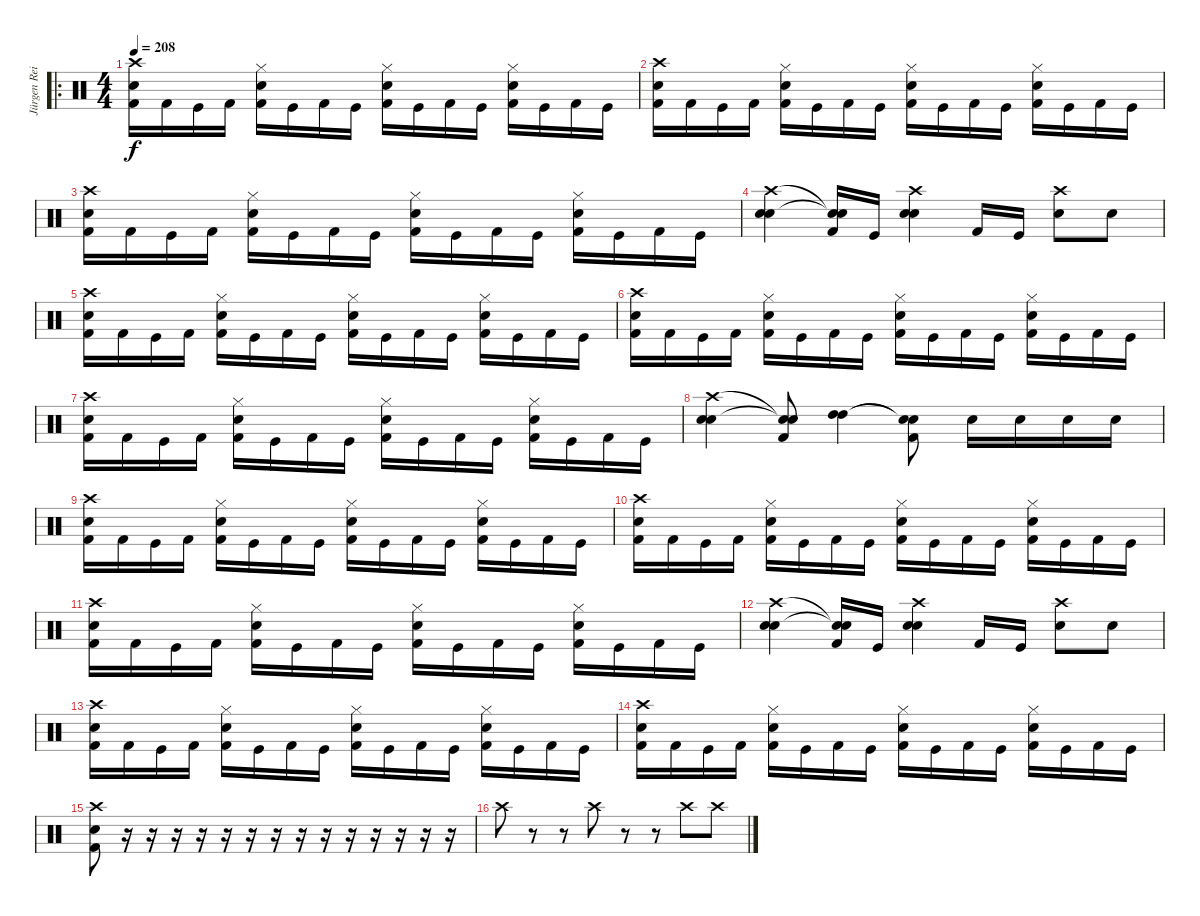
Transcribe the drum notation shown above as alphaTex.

\track ("Jürgen Reil" "Jürgen Rei") {instrument percussion}
\staff {score}
\articulation defaults
\ro
\ts (4 4)
\tempo 208
\clef neutral
\ks c
("Crash high (hit)" "Electric Snare (hit)" "Kick (hit) 2").16{dy f} "Kick (hit) 2".16 "Kick (hit)".16 "Kick (hit) 2".16 ("Hi-Hat (closed)" "Electric Snare (hit)" "Kick (hit) 2").16 "Kick (hit)".16 "Kick (hit) 2".16 "Kick (hit)".16 ("Hi-Hat (closed)" "Electric Snare (hit)" "Kick (hit) 2").16 "Kick (hit)".16 "Kick (hit) 2".16 "Kick (hit)".16 ("Hi-Hat (closed)" "Electric Snare (hit)" "Kick (hit) 2").16 "Kick (hit)".16 "Kick (hit) 2".16 "Kick (hit)".16 |
("Crash high (hit)" "Electric Snare (hit)" "Kick (hit) 2").16 "Kick (hit) 2".16 "Kick (hit)".16 "Kick (hit) 2".16 ("Hi-Hat (closed)" "Electric Snare (hit)" "Kick (hit) 2").16 "Kick (hit)".16 "Kick (hit) 2".16 "Kick (hit)".16 ("Hi-Hat (closed)" "Electric Snare (hit)" "Kick (hit) 2").16 "Kick (hit)".16 "Kick (hit) 2".16 "Kick (hit)".16 ("Hi-Hat (closed)" "Electric Snare (hit)" "Kick (hit) 2").16 "Kick (hit)".16 "Kick (hit) 2".16 "Kick (hit)".16 |
("Crash high (hit)" "Electric Snare (hit)" "Kick (hit) 2").16 "Kick (hit) 2".16 "Kick (hit)".16 "Kick (hit) 2".16 ("Hi-Hat (closed)" "Electric Snare (hit)" "Kick (hit) 2").16 "Kick (hit)".16 "Kick (hit) 2".16 "Kick (hit)".16 ("Hi-Hat (closed)" "Electric Snare (hit)" "Kick (hit) 2").16 "Kick (hit)".16 "Kick (hit) 2".16 "Kick (hit)".16 ("Hi-Hat (closed)" "Electric Snare (hit)" "Kick (hit) 2").16 "Kick (hit)".16 "Kick (hit) 2".16 "Kick (hit)".16 |
("Crash high (hit)" "Electric Snare (hit)" "Electric Snare (hit)").4 ("Snare (hit)"{t} "Snare (hit)"{t} "Kick (hit) 2").16 "Kick (hit)".16 ("Crash high (hit)" "Electric Snare (hit)" "Electric Snare (hit)").4 "Kick (hit) 2".16 "Kick (hit)".16 ("Crash high (hit)" "Electric Snare (hit)").8 "Electric Snare (hit)".8 |
("Crash high (hit)" "Electric Snare (hit)" "Kick (hit) 2").16 "Kick (hit) 2".16 "Kick (hit)".16 "Kick (hit) 2".16 ("Hi-Hat (closed)" "Electric Snare (hit)" "Kick (hit) 2").16 "Kick (hit)".16 "Kick (hit) 2".16 "Kick (hit)".16 ("Hi-Hat (closed)" "Electric Snare (hit)" "Kick (hit) 2").16 "Kick (hit)".16 "Kick (hit) 2".16 "Kick (hit)".16 ("Hi-Hat (closed)" "Electric Snare (hit)" "Kick (hit) 2").16 "Kick (hit)".16 "Kick (hit) 2".16 "Kick (hit)".16 |
("Crash high (hit)" "Electric Snare (hit)" "Kick (hit) 2").16 "Kick (hit) 2".16 "Kick (hit)".16 "Kick (hit) 2".16 ("Hi-Hat (closed)" "Electric Snare (hit)" "Kick (hit) 2").16 "Kick (hit)".16 "Kick (hit) 2".16 "Kick (hit)".16 ("Hi-Hat (closed)" "Electric Snare (hit)" "Kick (hit) 2").16 "Kick (hit)".16 "Kick (hit) 2".16 "Kick (hit)".16 ("Hi-Hat (closed)" "Electric Snare (hit)" "Kick (hit) 2").16 "Kick (hit)".16 "Kick (hit) 2".16 "Kick (hit)".16 |
("Crash high (hit)" "Electric Snare (hit)" "Kick (hit) 2").16 "Kick (hit) 2".16 "Kick (hit)".16 "Kick (hit) 2".16 ("Hi-Hat (closed)" "Electric Snare (hit)" "Kick (hit) 2").16 "Kick (hit)".16 "Kick (hit) 2".16 "Kick (hit)".16 ("Hi-Hat (closed)" "Electric Snare (hit)" "Kick (hit) 2").16 "Kick (hit)".16 "Kick (hit) 2".16 "Kick (hit)".16 ("Hi-Hat (closed)" "Electric Snare (hit)" "Kick (hit) 2").16 "Kick (hit)".16 "Kick (hit) 2".16 "Kick (hit)".16 |
("Crash high (hit)" "Electric Snare (hit)" "Electric Snare (hit)").4 ("Snare (hit)"{t} "Snare (hit)"{t} "Kick (hit) 2").8 ("High Tom (hit)" "High Tom (hit)").4 ("Snare (hit)"{t} "Electric Snare (hit)"{t} "Kick (hit) 2").8 "Electric Snare (hit)".16 "Electric Snare (hit)".16 "Electric Snare (hit)".16 "Electric Snare (hit)".16 |
("Crash high (hit)" "Electric Snare (hit)" "Kick (hit) 2").16 "Kick (hit) 2".16 "Kick (hit)".16 "Kick (hit) 2".16 ("Hi-Hat (closed)" "Electric Snare (hit)" "Kick (hit) 2").16 "Kick (hit)".16 "Kick (hit) 2".16 "Kick (hit)".16 ("Hi-Hat (closed)" "Electric Snare (hit)" "Kick (hit) 2").16 "Kick (hit)".16 "Kick (hit) 2".16 "Kick (hit)".16 ("Hi-Hat (closed)" "Electric Snare (hit)" "Kick (hit) 2").16 "Kick (hit)".16 "Kick (hit) 2".16 "Kick (hit)".16 |
("Crash high (hit)" "Electric Snare (hit)" "Kick (hit) 2").16 "Kick (hit) 2".16 "Kick (hit)".16 "Kick (hit) 2".16 ("Hi-Hat (closed)" "Electric Snare (hit)" "Kick (hit) 2").16 "Kick (hit)".16 "Kick (hit) 2".16 "Kick (hit)".16 ("Hi-Hat (closed)" "Electric Snare (hit)" "Kick (hit) 2").16 "Kick (hit)".16 "Kick (hit) 2".16 "Kick (hit)".16 ("Hi-Hat (closed)" "Electric Snare (hit)" "Kick (hit) 2").16 "Kick (hit)".16 "Kick (hit) 2".16 "Kick (hit)".16 |
("Crash high (hit)" "Electric Snare (hit)" "Kick (hit) 2").16 "Kick (hit) 2".16 "Kick (hit)".16 "Kick (hit) 2".16 ("Hi-Hat (closed)" "Electric Snare (hit)" "Kick (hit) 2").16 "Kick (hit)".16 "Kick (hit) 2".16 "Kick (hit)".16 ("Hi-Hat (closed)" "Electric Snare (hit)" "Kick (hit) 2").16 "Kick (hit)".16 "Kick (hit) 2".16 "Kick (hit)".16 ("Hi-Hat (closed)" "Electric Snare (hit)" "Kick (hit) 2").16 "Kick (hit)".16 "Kick (hit) 2".16 "Kick (hit)".16 |
("Crash high (hit)" "Electric Snare (hit)" "Electric Snare (hit)").4 ("Snare (hit)"{t} "Snare (hit)"{t} "Kick (hit) 2").16 "Kick (hit)".16 ("Crash high (hit)" "Electric Snare (hit)" "Electric Snare (hit)").4 "Kick (hit) 2".16 "Kick (hit)".16 ("Crash high (hit)" "Electric Snare (hit)").8 "Electric Snare (hit)".8 |
("Crash high (hit)" "Electric Snare (hit)" "Kick (hit) 2").16 "Kick (hit) 2".16 "Kick (hit)".16 "Kick (hit) 2".16 ("Hi-Hat (closed)" "Electric Snare (hit)" "Kick (hit) 2").16 "Kick (hit)".16 "Kick (hit) 2".16 "Kick (hit)".16 ("Hi-Hat (closed)" "Electric Snare (hit)" "Kick (hit) 2").16 "Kick (hit)".16 "Kick (hit) 2".16 "Kick (hit)".16 ("Hi-Hat (closed)" "Electric Snare (hit)" "Kick (hit) 2").16 "Kick (hit)".16 "Kick (hit) 2".16 "Kick (hit)".16 |
("Crash high (hit)" "Electric Snare (hit)" "Kick (hit) 2").16 "Kick (hit) 2".16 "Kick (hit)".16 "Kick (hit) 2".16 ("Hi-Hat (closed)" "Electric Snare (hit)" "Kick (hit) 2").16 "Kick (hit)".16 "Kick (hit) 2".16 "Kick (hit)".16 ("Hi-Hat (closed)" "Electric Snare (hit)" "Kick (hit) 2").16 "Kick (hit)".16 "Kick (hit) 2".16 "Kick (hit)".16 ("Hi-Hat (closed)" "Electric Snare (hit)" "Kick (hit) 2").16 "Kick (hit)".16 "Kick (hit) 2".16 "Kick (hit)".16 |
("Crash high (hit)" "Electric Snare (hit)" "Kick (hit) 2").8 r.16 r.16 r.16 r.16 r.16 r.16 r.16 r.16 r.16 r.16 r.16 r.16 r.16 r.16 |
"Crash high (hit)".8 r.8 r.8 "Crash high (hit)".8 r.8 r.8 "Crash high (hit)".8 "Crash high (hit)".8
